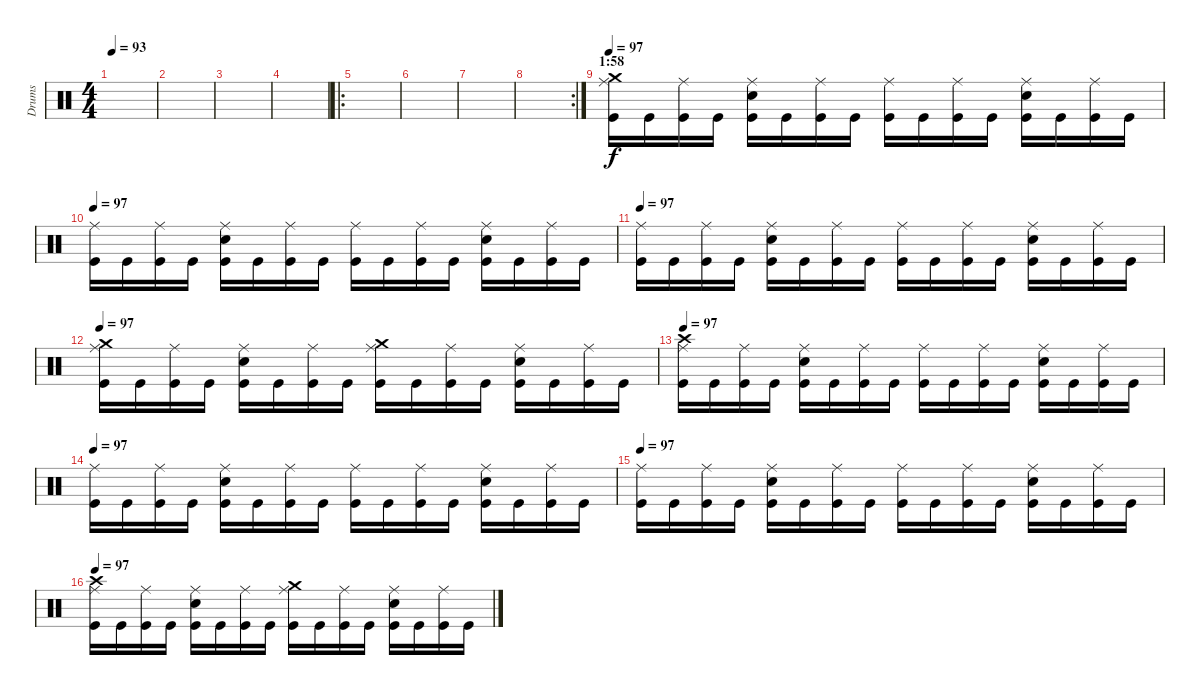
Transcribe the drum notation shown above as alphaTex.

\track ("Drums" "Drums") {instrument percussion}
\staff {score}
\articulation defaults
\ts (4 4)
\tempo 93
\clef neutral
\ks c
|
|
|
|
\ro
|
|
|
\rc 2
|
\section ("" "1:58")
\tempo 97
("Kick (hit)" "Ride (middle)" "Crash medium (hit)").16 "Kick (hit)".16 ("Kick (hit)" "Ride (middle)").16 "Kick (hit)".16 ("Kick (hit)" "Electric Snare (hit)" "Ride (middle)").16 "Kick (hit)".16 ("Kick (hit)" "Ride (middle)").16 "Kick (hit)".16 ("Kick (hit)" "Ride (middle)").16 "Kick (hit)".16 ("Kick (hit)" "Ride (middle)").16 "Kick (hit)".16 ("Kick (hit)" "Electric Snare (hit)" "Ride (middle)").16 "Kick (hit)".16 ("Kick (hit)" "Ride (middle)").16 "Kick (hit)".16 |
\tempo 97
("Kick (hit)" "Ride (middle)").16 "Kick (hit)".16 ("Kick (hit)" "Ride (middle)").16 "Kick (hit)".16 ("Kick (hit)" "Electric Snare (hit)" "Ride (middle)").16 "Kick (hit)".16 ("Kick (hit)" "Ride (middle)").16 "Kick (hit)".16 ("Kick (hit)" "Ride (middle)").16 "Kick (hit)".16 ("Kick (hit)" "Ride (middle)").16 "Kick (hit)".16 ("Kick (hit)" "Electric Snare (hit)" "Ride (middle)").16 "Kick (hit)".16 ("Kick (hit)" "Ride (middle)").16 "Kick (hit)".16 |
\tempo 97
("Kick (hit)" "Ride (middle)").16 "Kick (hit)".16 ("Kick (hit)" "Ride (middle)").16 "Kick (hit)".16 ("Kick (hit)" "Electric Snare (hit)" "Ride (middle)").16 "Kick (hit)".16 ("Kick (hit)" "Ride (middle)").16 "Kick (hit)".16 ("Kick (hit)" "Ride (middle)").16 "Kick (hit)".16 ("Kick (hit)" "Ride (middle)").16 "Kick (hit)".16 ("Kick (hit)" "Electric Snare (hit)" "Ride (middle)").16 "Kick (hit)".16 ("Kick (hit)" "Ride (middle)").16 "Kick (hit)".16 |
\tempo 97
("Kick (hit)" "Ride (middle)" "Crash medium (hit)").16 "Kick (hit)".16 ("Kick (hit)" "Ride (middle)").16 "Kick (hit)".16 ("Kick (hit)" "Electric Snare (hit)" "Ride (middle)").16 "Kick (hit)".16 ("Kick (hit)" "Ride (middle)").16 "Kick (hit)".16 ("Kick (hit)" "Ride (middle)" "Crash medium (hit)").16 "Kick (hit)".16 ("Kick (hit)" "Ride (middle)").16 "Kick (hit)".16 ("Kick (hit)" "Electric Snare (hit)" "Ride (middle)").16 "Kick (hit)".16 ("Kick (hit)" "Ride (middle)").16 "Kick (hit)".16 |
\tempo 97
("Kick (hit)" "Ride (middle)" "Crash high (hit)").16 "Kick (hit)".16 ("Kick (hit)" "Ride (middle)").16 "Kick (hit)".16 ("Kick (hit)" "Electric Snare (hit)" "Ride (middle)").16 "Kick (hit)".16 ("Kick (hit)" "Ride (middle)").16 "Kick (hit)".16 ("Kick (hit)" "Ride (middle)").16 "Kick (hit)".16 ("Kick (hit)" "Ride (middle)").16 "Kick (hit)".16 ("Kick (hit)" "Electric Snare (hit)" "Ride (middle)").16 "Kick (hit)".16 ("Kick (hit)" "Ride (middle)").16 "Kick (hit)".16 |
\tempo 97
("Kick (hit)" "Ride (middle)").16 "Kick (hit)".16 ("Kick (hit)" "Ride (middle)").16 "Kick (hit)".16 ("Kick (hit)" "Electric Snare (hit)" "Ride (middle)").16 "Kick (hit)".16 ("Kick (hit)" "Ride (middle)").16 "Kick (hit)".16 ("Kick (hit)" "Ride (middle)").16 "Kick (hit)".16 ("Kick (hit)" "Ride (middle)").16 "Kick (hit)".16 ("Kick (hit)" "Electric Snare (hit)" "Ride (middle)").16 "Kick (hit)".16 ("Kick (hit)" "Ride (middle)").16 "Kick (hit)".16 |
\tempo 97
("Kick (hit)" "Ride (middle)").16 "Kick (hit)".16 ("Kick (hit)" "Ride (middle)").16 "Kick (hit)".16 ("Kick (hit)" "Electric Snare (hit)" "Ride (middle)").16 "Kick (hit)".16 ("Kick (hit)" "Ride (middle)").16 "Kick (hit)".16 ("Kick (hit)" "Ride (middle)").16 "Kick (hit)".16 ("Kick (hit)" "Ride (middle)").16 "Kick (hit)".16 ("Kick (hit)" "Electric Snare (hit)" "Ride (middle)").16 "Kick (hit)".16 ("Kick (hit)" "Ride (middle)").16 "Kick (hit)".16 |
\tempo 97
("Kick (hit)" "Ride (middle)" "Crash high (hit)").16 "Kick (hit)".16 ("Kick (hit)" "Ride (middle)").16 "Kick (hit)".16 ("Kick (hit)" "Electric Snare (hit)" "Ride (middle)").16 "Kick (hit)".16 ("Kick (hit)" "Ride (middle)").16 "Kick (hit)".16 ("Kick (hit)" "Ride (middle)" "Crash medium (hit)").16 "Kick (hit)".16 ("Kick (hit)" "Ride (middle)").16 "Kick (hit)".16 ("Kick (hit)" "Electric Snare (hit)" "Ride (middle)").16 "Kick (hit)".16 ("Kick (hit)" "Ride (middle)").16 "Kick (hit)".16
